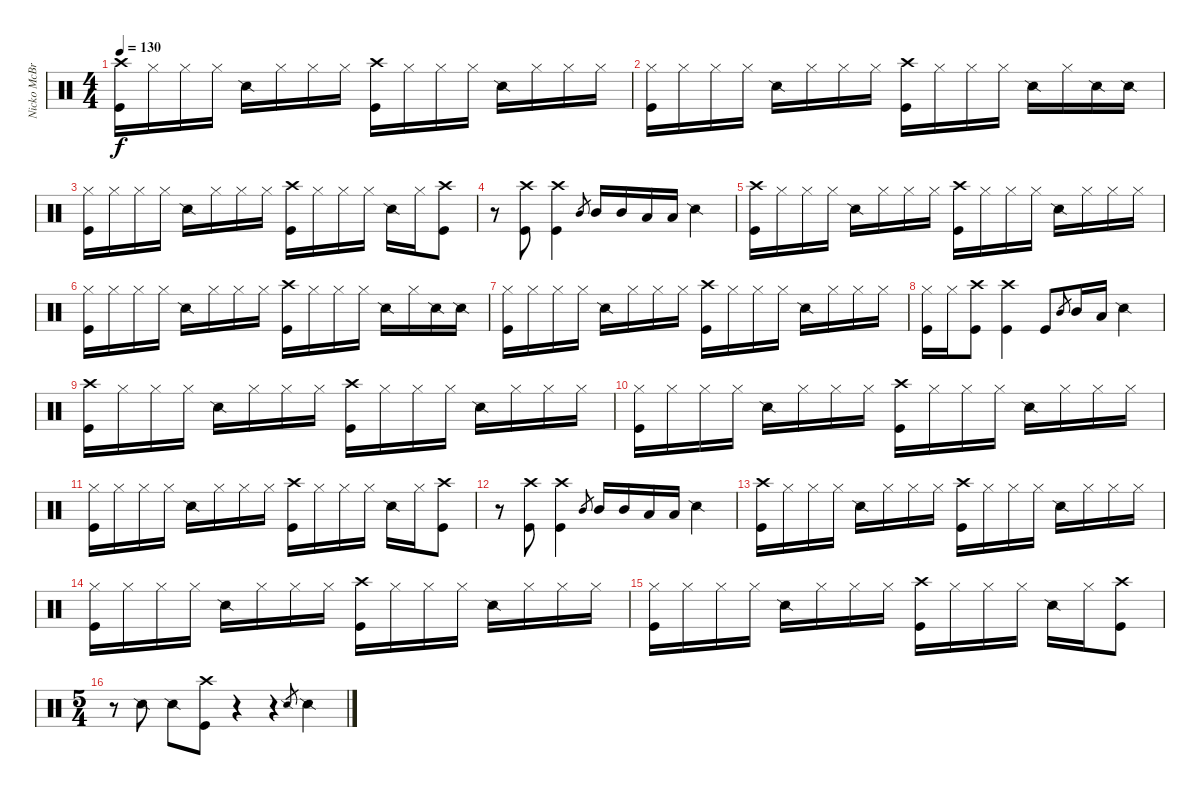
\track ("Nicko McBrain" "Nicko McBr") {instrument percussion}
\staff {score}
\articulation defaults
\ts (4 4)
\tempo 130
\clef neutral
\ks c
("Crash high (hit)" "Kick (hit)").16{dy f} "Hi-Hat (closed)".16 "Hi-Hat (closed)".16 "Hi-Hat (closed)".16 "Snare (side stick) 2".16 "Hi-Hat (closed)".16 "Hi-Hat (closed)".16 "Hi-Hat (closed)".16 ("Crash high (hit)" "Kick (hit)").16 "Hi-Hat (closed)".16 "Hi-Hat (closed)".16 "Hi-Hat (closed)".16 "Snare (side stick) 2".16 "Hi-Hat (closed)".16 "Hi-Hat (closed)".16 "Hi-Hat (closed)".16 |
("Hi-Hat (closed)" "Kick (hit)").16 "Hi-Hat (closed)".16 "Hi-Hat (closed)".16 "Hi-Hat (closed)".16 "Snare (side stick) 2".16 "Hi-Hat (closed)".16 "Hi-Hat (closed)".16 "Hi-Hat (closed)".16 ("Crash high (hit)" "Kick (hit)").16 "Hi-Hat (closed)".16 "Hi-Hat (closed)".16 "Hi-Hat (closed)".16 "Snare (side stick) 2".16 "Hi-Hat (closed)".16 "Snare (side stick) 2".16 "Snare (side stick) 2".16 |
("Hi-Hat (closed)" "Kick (hit)").16 "Hi-Hat (closed)".16 "Hi-Hat (closed)".16 "Hi-Hat (closed)".16 "Snare (side stick) 2".16 "Hi-Hat (closed)".16 "Hi-Hat (closed)".16 "Hi-Hat (closed)".16 ("Crash high (hit)" "Kick (hit)").16 "Hi-Hat (closed)".16 "Hi-Hat (closed)".16 "Hi-Hat (closed)".16 "Snare (side stick) 2".16 "Hi-Hat (closed)".16 ("Crash high (hit)" "Kick (hit)").8 |
r.8 ("Crash high (hit)" "Kick (hit)").8 ("Crash high (hit)" "Kick (hit)").4 "Mid Tom (hit)".8{gr} "Mid Tom (hit)".16 "Mid Tom (hit)".16 "Low Tom (hit)".16 "Low Tom (hit)".16 "Snare (side stick) 2".4 |
("Crash high (hit)" "Kick (hit)").16 "Hi-Hat (closed)".16 "Hi-Hat (closed)".16 "Hi-Hat (closed)".16 "Snare (side stick) 2".16 "Hi-Hat (closed)".16 "Hi-Hat (closed)".16 "Hi-Hat (closed)".16 ("Crash high (hit)" "Kick (hit)").16 "Hi-Hat (closed)".16 "Hi-Hat (closed)".16 "Hi-Hat (closed)".16 "Snare (side stick) 2".16 "Hi-Hat (closed)".16 "Hi-Hat (closed)".16 "Hi-Hat (closed)".16 |
("Hi-Hat (closed)" "Kick (hit)").16 "Hi-Hat (closed)".16 "Hi-Hat (closed)".16 "Hi-Hat (closed)".16 "Snare (side stick) 2".16 "Hi-Hat (closed)".16 "Hi-Hat (closed)".16 "Hi-Hat (closed)".16 ("Crash high (hit)" "Kick (hit)").16 "Hi-Hat (closed)".16 "Hi-Hat (closed)".16 "Hi-Hat (closed)".16 "Snare (side stick) 2".16 "Hi-Hat (closed)".16 "Snare (side stick) 2".16 "Snare (side stick) 2".16 |
("Hi-Hat (closed)" "Kick (hit)").16 "Hi-Hat (closed)".16 "Hi-Hat (closed)".16 "Hi-Hat (closed)".16 "Snare (side stick) 2".16 "Hi-Hat (closed)".16 "Hi-Hat (closed)".16 "Hi-Hat (closed)".16 ("Crash high (hit)" "Kick (hit)").16 "Hi-Hat (closed)".16 "Hi-Hat (closed)".16 "Hi-Hat (closed)".16 "Snare (side stick) 2".16 "Hi-Hat (closed)".16 "Hi-Hat (closed)".16 "Hi-Hat (closed)".16 |
("Hi-Hat (closed)" "Kick (hit)").16 "Hi-Hat (closed)".16 ("Crash high (hit)" "Kick (hit)").8 ("Crash high (hit)" "Kick (hit)").4 "Kick (hit)".8 "Mid Tom (hit)".8{gr} "Mid Tom (hit)".16 "Low Tom (hit)".16 "Snare (side stick) 2".4 |
("Crash high (hit)" "Kick (hit)").16 "Hi-Hat (closed)".16 "Hi-Hat (closed)".16 "Hi-Hat (closed)".16 "Snare (side stick) 2".16 "Hi-Hat (closed)".16 "Hi-Hat (closed)".16 "Hi-Hat (closed)".16 ("Crash high (hit)" "Kick (hit)").16 "Hi-Hat (closed)".16 "Hi-Hat (closed)".16 "Hi-Hat (closed)".16 "Snare (side stick) 2".16 "Hi-Hat (closed)".16 "Hi-Hat (closed)".16 "Hi-Hat (closed)".16 |
("Hi-Hat (closed)" "Kick (hit)").16 "Hi-Hat (closed)".16 "Hi-Hat (closed)".16 "Hi-Hat (closed)".16 "Snare (side stick) 2".16 "Hi-Hat (closed)".16 "Hi-Hat (closed)".16 "Hi-Hat (closed)".16 ("Crash high (hit)" "Kick (hit)").16 "Hi-Hat (closed)".16 "Hi-Hat (closed)".16 "Hi-Hat (closed)".16 "Snare (side stick) 2".16 "Hi-Hat (closed)".16 "Hi-Hat (closed)".16 "Hi-Hat (closed)".16 |
("Hi-Hat (closed)" "Kick (hit)").16 "Hi-Hat (closed)".16 "Hi-Hat (closed)".16 "Hi-Hat (closed)".16 "Snare (side stick) 2".16 "Hi-Hat (closed)".16 "Hi-Hat (closed)".16 "Hi-Hat (closed)".16 ("Crash high (hit)" "Kick (hit)").16 "Hi-Hat (closed)".16 "Hi-Hat (closed)".16 "Hi-Hat (closed)".16 "Snare (side stick) 2".16 "Hi-Hat (closed)".16 ("Crash high (hit)" "Kick (hit)").8 |
r.8 ("Crash high (hit)" "Kick (hit)").8 ("Crash high (hit)" "Kick (hit)").4 "Mid Tom (hit)".8{gr} "Mid Tom (hit)".16 "Mid Tom (hit)".16 "Low Tom (hit)".16 "Low Tom (hit)".16 "Snare (side stick) 2".4 |
("Crash high (hit)" "Kick (hit)").16 "Hi-Hat (closed)".16 "Hi-Hat (closed)".16 "Hi-Hat (closed)".16 "Snare (side stick) 2".16 "Hi-Hat (closed)".16 "Hi-Hat (closed)".16 "Hi-Hat (closed)".16 ("Crash high (hit)" "Kick (hit)").16 "Hi-Hat (closed)".16 "Hi-Hat (closed)".16 "Hi-Hat (closed)".16 "Snare (side stick) 2".16 "Hi-Hat (closed)".16 "Hi-Hat (closed)".16 "Hi-Hat (closed)".16 |
("Hi-Hat (closed)" "Kick (hit)").16 "Hi-Hat (closed)".16 "Hi-Hat (closed)".16 "Hi-Hat (closed)".16 "Snare (side stick) 2".16 "Hi-Hat (closed)".16 "Hi-Hat (closed)".16 "Hi-Hat (closed)".16 ("Crash high (hit)" "Kick (hit)").16 "Hi-Hat (closed)".16 "Hi-Hat (closed)".16 "Hi-Hat (closed)".16 "Snare (side stick) 2".16 "Hi-Hat (closed)".16 "Hi-Hat (closed)".16 "Hi-Hat (closed)".16 |
("Hi-Hat (closed)" "Kick (hit)").16 "Hi-Hat (closed)".16 "Hi-Hat (closed)".16 "Hi-Hat (closed)".16 "Snare (side stick) 2".16 "Hi-Hat (closed)".16 "Hi-Hat (closed)".16 "Hi-Hat (closed)".16 ("Crash high (hit)" "Kick (hit)").16 "Hi-Hat (closed)".16 "Hi-Hat (closed)".16 "Hi-Hat (closed)".16 "Snare (side stick) 2".16 "Hi-Hat (closed)".16 ("Crash high (hit)" "Kick (hit)").8 |
\ts (5 4)
r.8 "Snare (side stick) 2".8 "Snare (side stick) 2".8 ("Crash high (hit)" "Kick (hit)").8 r.4 r.4 "Snare (side stick) 2".8{gr} "Snare (side stick) 2".4
